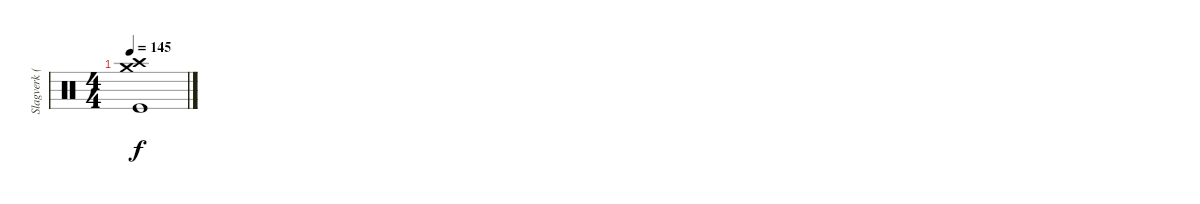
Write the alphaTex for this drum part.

\track ("Slagverk (Jan)" "Slagverk (") {instrument percussion}
\staff {score}
\articulation defaults
\ts (4 4)
\tempo 145
\clef neutral
\ks c
("Crash high (hit)" "Crash medium (hit)" "Kick (hit)").1{dy f}
